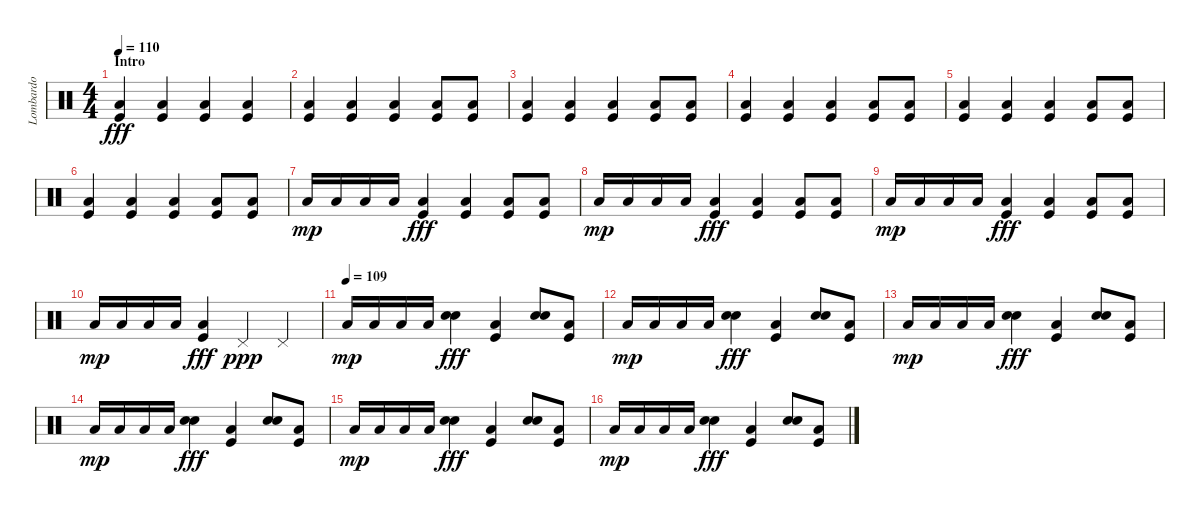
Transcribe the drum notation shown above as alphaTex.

\track ("Lombardo" "Lombardo") {instrument percussion}
\staff {score}
\articulation defaults
\ts (4 4)
\section ("" "Intro")
\tempo 110
\clef neutral
\ks c
("Low Floor Tom (hit)" "Kick (hit)").4{dy fff} ("Low Floor Tom (hit)" "Kick (hit)").4 ("Low Floor Tom (hit)" "Kick (hit)").4 ("Low Floor Tom (hit)" "Kick (hit)").4 |
("Low Floor Tom (hit)" "Kick (hit)").4 ("Low Floor Tom (hit)" "Kick (hit)").4 ("Low Floor Tom (hit)" "Kick (hit)").4 ("Low Floor Tom (hit)" "Kick (hit)").8 ("Low Floor Tom (hit)" "Kick (hit)").8 |
("Low Floor Tom (hit)" "Kick (hit)").4 ("Low Floor Tom (hit)" "Kick (hit)").4 ("Low Floor Tom (hit)" "Kick (hit)").4 ("Low Floor Tom (hit)" "Kick (hit)").8 ("Low Floor Tom (hit)" "Kick (hit)").8 |
("Low Floor Tom (hit)" "Kick (hit)").4 ("Low Floor Tom (hit)" "Kick (hit)").4 ("Low Floor Tom (hit)" "Kick (hit)").4 ("Low Floor Tom (hit)" "Kick (hit)").8 ("Low Floor Tom (hit)" "Kick (hit)").8 |
("Low Floor Tom (hit)" "Kick (hit)").4 ("Low Floor Tom (hit)" "Kick (hit)").4 ("Low Floor Tom (hit)" "Kick (hit)").4 ("Low Floor Tom (hit)" "Kick (hit)").8 ("Low Floor Tom (hit)" "Kick (hit)").8 |
("Low Floor Tom (hit)" "Kick (hit)").4 ("Low Floor Tom (hit)" "Kick (hit)").4 ("Low Floor Tom (hit)" "Kick (hit)").4 ("Low Floor Tom (hit)" "Kick (hit)").8 ("Low Floor Tom (hit)" "Kick (hit)").8 |
"Low Tom (hit)".16{dy mp} "Low Tom (hit)".16 "Low Tom (hit)".16 "Low Tom (hit)".16 ("Low Floor Tom (hit)" "Kick (hit)").4{dy fff} ("Low Floor Tom (hit)" "Kick (hit)").4 ("Low Floor Tom (hit)" "Kick (hit)").8 ("Low Floor Tom (hit)" "Kick (hit)").8 |
"Low Tom (hit)".16{dy mp} "Low Tom (hit)".16 "Low Tom (hit)".16 "Low Tom (hit)".16 ("Low Floor Tom (hit)" "Kick (hit)").4{dy fff} ("Low Floor Tom (hit)" "Kick (hit)").4 ("Low Floor Tom (hit)" "Kick (hit)").8 ("Low Floor Tom (hit)" "Kick (hit)").8 |
"Low Tom (hit)".16{dy mp} "Low Tom (hit)".16 "Low Tom (hit)".16 "Low Tom (hit)".16 ("Low Floor Tom (hit)" "Kick (hit)").4{dy fff} ("Low Floor Tom (hit)" "Kick (hit)").4 ("Low Floor Tom (hit)" "Kick (hit)").8 ("Low Floor Tom (hit)" "Kick (hit)").8 |
"Low Tom (hit)".16{dy mp} "Low Tom (hit)".16 "Low Tom (hit)".16 "Low Tom (hit)".16 ("Low Floor Tom (hit)" "Kick (hit)").4{dy fff} "Pedal Hi-Hat (hit)".4{dy ppp} "Pedal Hi-Hat (hit)".4 |
\tempo (109)
"Low Tom (hit)".16{dy mp} "Low Tom (hit)".16 "Low Tom (hit)".16 "Low Tom (hit)".16 ("Electric Snare (hit)" "Electric Snare (hit)").4{dy fff} ("Low Floor Tom (hit)" "Kick (hit)").4 ("Electric Snare (hit)" "Electric Snare (hit)").8 ("Low Floor Tom (hit)" "Kick (hit)").8 |
"Low Tom (hit)".16{dy mp} "Low Tom (hit)".16 "Low Tom (hit)".16 "Low Tom (hit)".16 ("Electric Snare (hit)" "Electric Snare (hit)").4{dy fff} ("Low Floor Tom (hit)" "Kick (hit)").4 ("Electric Snare (hit)" "Electric Snare (hit)").8 ("Low Floor Tom (hit)" "Kick (hit)").8 |
"Low Tom (hit)".16{dy mp} "Low Tom (hit)".16 "Low Tom (hit)".16 "Low Tom (hit)".16 ("Electric Snare (hit)" "Electric Snare (hit)").4{dy fff} ("Low Floor Tom (hit)" "Kick (hit)").4 ("Electric Snare (hit)" "Electric Snare (hit)").8 ("Low Floor Tom (hit)" "Kick (hit)").8 |
"Low Tom (hit)".16{dy mp} "Low Tom (hit)".16 "Low Tom (hit)".16 "Low Tom (hit)".16 ("Electric Snare (hit)" "Electric Snare (hit)").4{dy fff} ("Low Floor Tom (hit)" "Kick (hit)").4 ("Electric Snare (hit)" "Electric Snare (hit)").8 ("Low Floor Tom (hit)" "Kick (hit)").8 |
"Low Tom (hit)".16{dy mp} "Low Tom (hit)".16 "Low Tom (hit)".16 "Low Tom (hit)".16 ("Electric Snare (hit)" "Electric Snare (hit)").4{dy fff} ("Low Floor Tom (hit)" "Kick (hit)").4 ("Electric Snare (hit)" "Electric Snare (hit)").8 ("Low Floor Tom (hit)" "Kick (hit)").8 |
"Low Tom (hit)".16{dy mp} "Low Tom (hit)".16 "Low Tom (hit)".16 "Low Tom (hit)".16 ("Electric Snare (hit)" "Electric Snare (hit)").4{dy fff} ("Low Floor Tom (hit)" "Kick (hit)").4 ("Electric Snare (hit)" "Electric Snare (hit)").8 ("Low Floor Tom (hit)" "Kick (hit)").8
